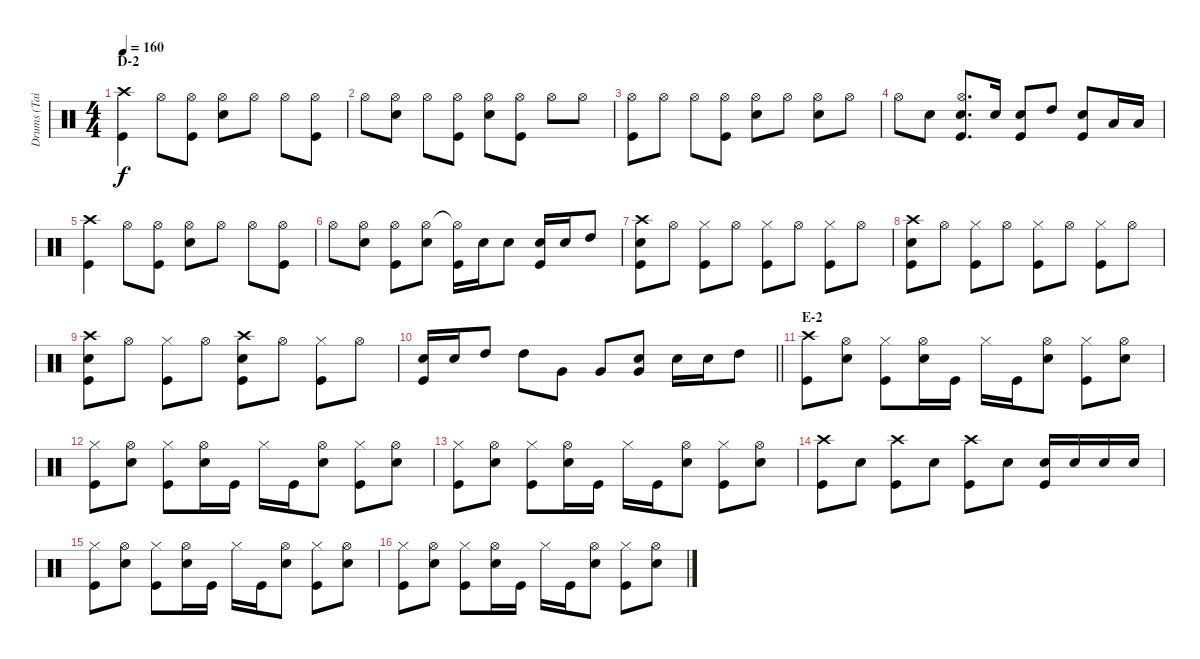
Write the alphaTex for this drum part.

\track ("Drums (Tainaka Ritsu)" "Drums (Tai") {instrument percussion}
\staff {score}
\articulation defaults
\ts (4 4)
\section ("" "D-2")
\tempo 160
\clef neutral
\ks c
("Crash high (hit)" "Kick (hit)").4{dy f} "Hi-Hat (open)".8 ("Hi-Hat (open)" "Kick (hit)").8 ("Hi-Hat (open)" "Snare (hit) 2").8 "Hi-Hat (open)".8 "Hi-Hat (open)".8 ("Hi-Hat (open)" "Kick (hit)").8 |
"Hi-Hat (open)".8 ("Hi-Hat (open)" "Snare (hit) 2").8 "Hi-Hat (open)".8 ("Hi-Hat (open)" "Kick (hit)").8 ("Hi-Hat (open)" "Snare (hit) 2").8 ("Hi-Hat (open)" "Kick (hit)").8 "Hi-Hat (open)".8 "Hi-Hat (open)".8 |
("Hi-Hat (open)" "Kick (hit)").8 "Hi-Hat (open)".8 "Hi-Hat (open)".8 ("Hi-Hat (open)" "Kick (hit)").8 ("Hi-Hat (open)" "Snare (hit) 2").8 "Hi-Hat (open)".8 ("Hi-Hat (open)" "Snare (hit) 2").8 "Hi-Hat (open)".8 |
"Hi-Hat (open)".8 "Snare (hit) 2".8 ("Hi-Hat (open)" "Snare (hit) 2" "Kick (hit)").8{d} "Snare (hit) 2".16 ("Snare (hit) 2" "Kick (hit)").8 "High Tom (hit)".8 ("Snare (hit) 2" "Kick (hit)").8 "Low Tom (hit)".16 "Low Tom (hit)".16 |
("Crash high (hit)" "Kick (hit)").4 "Hi-Hat (open)".8 ("Hi-Hat (open)" "Kick (hit)").8 ("Hi-Hat (open)" "Snare (hit) 2").8 "Hi-Hat (open)".8 "Hi-Hat (open)".8 ("Hi-Hat (open)" "Kick (hit)").8 |
"Hi-Hat (open)".8 ("Hi-Hat (open)" "Snare (hit) 2").8 ("Hi-Hat (open)" "Kick (hit)").8 ("Hi-Hat (open)" "Snare (hit) 2").8 ("Hi-Hat (open)"{t} "Kick (hit)").16 "Snare (hit) 2".16 "Snare (hit) 2".8 ("Snare (hit) 2" "Kick (hit)").16 "Snare (hit) 2".16 "High Tom (hit)".8 |
("Crash high (hit)" "Snare (hit) 2" "Kick (hit)").8 "Hi-Hat (open)".8 ("Hi-Hat (closed)" "Kick (hit)").8 "Hi-Hat (open)".8 ("Hi-Hat (closed)" "Kick (hit)").8 "Hi-Hat (open)".8 ("Hi-Hat (closed)" "Kick (hit)").8 "Hi-Hat (open)".8 |
("Crash high (hit)" "Snare (hit) 2" "Kick (hit)").8 "Hi-Hat (open)".8 ("Hi-Hat (closed)" "Kick (hit)").8 "Hi-Hat (open)".8 ("Hi-Hat (closed)" "Kick (hit)").8 "Hi-Hat (open)".8 ("Hi-Hat (closed)" "Kick (hit)").8 "Hi-Hat (open)".8 |
("Crash high (hit)" "Snare (hit) 2" "Kick (hit)").8 "Hi-Hat (open)".8 ("Hi-Hat (closed)" "Kick (hit)").8 "Hi-Hat (open)".8 ("Crash high (hit)" "Snare (hit) 2" "Kick (hit)").8 "Hi-Hat (open)".8 ("Hi-Hat (closed)" "Kick (hit)").8 "Hi-Hat (open)".8 |
\barLineRight lightlight
("Snare (hit) 2" "Kick (hit)").16 "Snare (hit) 2".16 "High Tom (hit)".8 "High Tom (hit)".8 "Very Low Tom (hit)".8 "Very Low Tom (hit)".8 ("Snare (hit) 2" "Very Low Tom (hit)").8 "Snare (hit) 2".16 "Snare (hit) 2".16 "High Tom (hit)".8 |
\section ("" "E-2")
("Crash high (hit)" "Kick (hit)").8 ("Hi-Hat (open)" "Snare (hit) 2").8 ("Hi-Hat (closed)" "Kick (hit)").8 ("Hi-Hat (open)" "Snare (hit) 2").16 "Kick (hit)".16 "Hi-Hat (closed)".16 "Kick (hit)".16 ("Hi-Hat (open)" "Snare (hit) 2").8 ("Hi-Hat (closed)" "Kick (hit)").8 ("Hi-Hat (open)" "Snare (hit) 2").8 |
("Hi-Hat (closed)" "Kick (hit)").8 ("Hi-Hat (open)" "Snare (hit) 2").8 ("Hi-Hat (closed)" "Kick (hit)").8 ("Hi-Hat (open)" "Snare (hit) 2").16 "Kick (hit)".16 "Hi-Hat (closed)".16 "Kick (hit)".16 ("Hi-Hat (open)" "Snare (hit) 2").8 ("Hi-Hat (closed)" "Kick (hit)").8 ("Hi-Hat (open)" "Snare (hit) 2").8 |
("Hi-Hat (closed)" "Kick (hit)").8 ("Hi-Hat (open)" "Snare (hit) 2").8 ("Hi-Hat (closed)" "Kick (hit)").8 ("Hi-Hat (open)" "Snare (hit) 2").16 "Kick (hit)".16 "Hi-Hat (closed)".16 "Kick (hit)".16 ("Hi-Hat (open)" "Snare (hit) 2").8 ("Hi-Hat (closed)" "Kick (hit)").8 ("Hi-Hat (open)" "Snare (hit) 2").8 |
("Crash high (hit)" "Kick (hit)").8 "Snare (hit) 2".8 ("Crash high (hit)" "Kick (hit)").8 "Snare (hit) 2".8 ("Crash high (hit)" "Kick (hit)").8 "Snare (hit) 2".8 ("Snare (hit) 2" "Kick (hit)").16 "Snare (hit) 2".16 "Snare (hit) 2".16 "Snare (hit) 2".16 |
("Hi-Hat (closed)" "Kick (hit)").8 ("Hi-Hat (open)" "Snare (hit) 2").8 ("Hi-Hat (closed)" "Kick (hit)").8 ("Hi-Hat (open)" "Snare (hit) 2").16 "Kick (hit)".16 "Hi-Hat (closed)".16 "Kick (hit)".16 ("Hi-Hat (open)" "Snare (hit) 2").8 ("Hi-Hat (closed)" "Kick (hit)").8 ("Hi-Hat (open)" "Snare (hit) 2").8 |
("Hi-Hat (closed)" "Kick (hit)").8 ("Hi-Hat (open)" "Snare (hit) 2").8 ("Hi-Hat (closed)" "Kick (hit)").8 ("Hi-Hat (open)" "Snare (hit) 2").16 "Kick (hit)".16 "Hi-Hat (closed)".16 "Kick (hit)".16 ("Hi-Hat (open)" "Snare (hit) 2").8 ("Hi-Hat (closed)" "Kick (hit)").8 ("Hi-Hat (open)" "Snare (hit) 2").8
